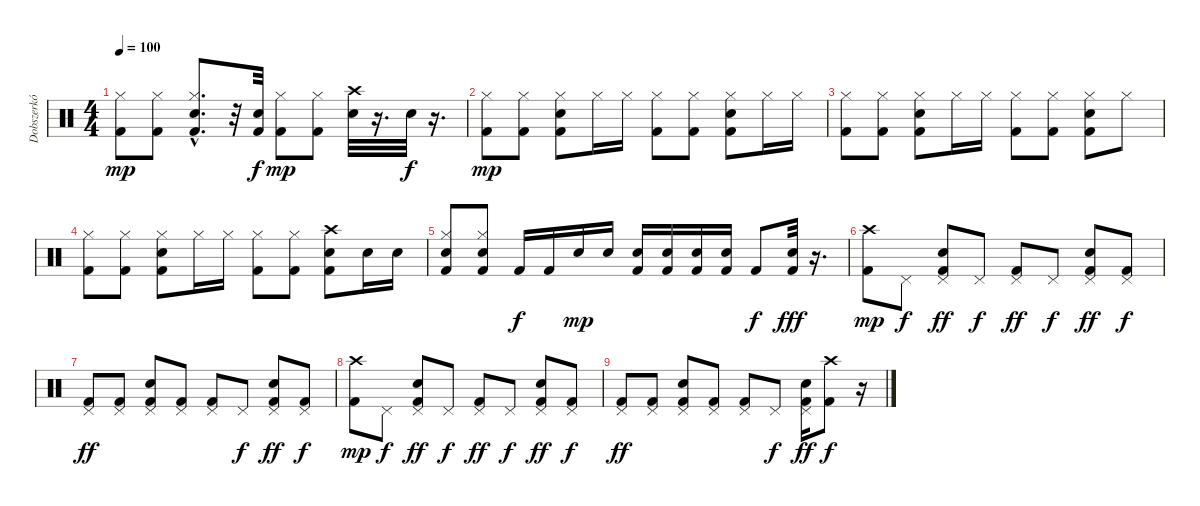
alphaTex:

\track ("Dobszerkó" "Dobszerkó") {instrument percussion}
\staff {score}
\articulation defaults
\ts (4 4)
\tempo 100
\clef neutral
\ks c
("Kick (hit) 2" "Hi-Hat (closed)").8{dy mp} ("Kick (hit) 2" "Hi-Hat (closed)").8 ("Electric Snare (hit)"{hac} "Kick (hit) 2"{hac} "Hi-Hat (closed)"{hac}).8{d} r.32 ("Electric Snare (hit)" "Kick (hit) 2").32{dy f} ("Kick (hit) 2" "Hi-Hat (closed)").8{dy mp} ("Kick (hit) 2" "Hi-Hat (closed)").8 ("Electric Snare (hit)"{tr (40 64)} "Crash high (hit)").32 r.16{d} "Snare (hit) 2"{tr (38 64)}.32{dy f} r.16{d} |
("Kick (hit) 2" "Hi-Hat (closed)").8{dy mp} ("Kick (hit) 2" "Hi-Hat (closed)").8 ("Electric Snare (hit)" "Kick (hit) 2" "Hi-Hat (closed)").8 "Hi-Hat (closed)".16 "Hi-Hat (closed)".16 ("Kick (hit) 2" "Hi-Hat (closed)").8 ("Kick (hit) 2" "Hi-Hat (closed)").8 ("Electric Snare (hit)" "Kick (hit) 2" "Hi-Hat (closed)").8 "Hi-Hat (closed)".16 "Hi-Hat (closed)".16 |
("Kick (hit) 2" "Hi-Hat (closed)").8 ("Kick (hit) 2" "Hi-Hat (closed)").8 ("Electric Snare (hit)" "Kick (hit) 2" "Hi-Hat (closed)").8 "Hi-Hat (closed)".16 "Hi-Hat (closed)".16 ("Kick (hit) 2" "Hi-Hat (closed)").8 ("Kick (hit) 2" "Hi-Hat (closed)").8 ("Electric Snare (hit)" "Kick (hit) 2" "Hi-Hat (closed)").8 "Hi-Hat (closed)".8 |
("Kick (hit) 2" "Hi-Hat (closed)").8 ("Kick (hit) 2" "Hi-Hat (closed)").8 ("Electric Snare (hit)" "Kick (hit) 2" "Hi-Hat (closed)").8 "Hi-Hat (closed)".16 "Hi-Hat (closed)".16 ("Kick (hit) 2" "Hi-Hat (closed)").8 ("Kick (hit) 2" "Hi-Hat (closed)").8 ("Electric Snare (hit)" "Kick (hit) 2" "Crash high (hit)").8 "Electric Snare (hit)".16 "Electric Snare (hit)".16 |
("Electric Snare (hit)" "Kick (hit) 2" "Hi-Hat (closed)").8 ("Electric Snare (hit)" "Kick (hit) 2" "Hi-Hat (closed)").8 "Kick (hit) 2".16{dy f} "Kick (hit) 2".16 "Electric Snare (hit)".16{dy mp} "Electric Snare (hit)".16 ("Electric Snare (hit)" "Kick (hit) 2").16 ("Electric Snare (hit)" "Kick (hit) 2").16 ("Snare (hit) 2" "Kick (hit) 2").16 ("Snare (hit) 2" "Kick (hit) 2").16 "Kick (hit) 2".8{dy f} ("Electric Snare (hit)"{tr (40 64)} "Kick (hit) 2").32{dy fff} r.16{d} |
("Kick (hit) 2" "Crash high (hit)").8{dy mp} "Pedal Hi-Hat (hit)".8{dy f} ("Electric Snare (hit)" "Kick (hit) 2" "Pedal Hi-Hat (hit)").8{dy ff} "Pedal Hi-Hat (hit)".8{dy f} ("Kick (hit) 2" "Pedal Hi-Hat (hit)").8{dy ff} "Pedal Hi-Hat (hit)".8{dy f} ("Electric Snare (hit)" "Kick (hit) 2" "Pedal Hi-Hat (hit)").8{dy ff} ("Kick (hit) 2" "Pedal Hi-Hat (hit)").8{dy f} |
("Kick (hit) 2" "Pedal Hi-Hat (hit)").8{dy ff} ("Kick (hit) 2" "Pedal Hi-Hat (hit)").8 ("Electric Snare (hit)" "Kick (hit) 2" "Pedal Hi-Hat (hit)").8 ("Kick (hit) 2" "Pedal Hi-Hat (hit)").8 ("Kick (hit) 2" "Pedal Hi-Hat (hit)").8 "Pedal Hi-Hat (hit)".8{dy f} ("Electric Snare (hit)" "Kick (hit) 2" "Pedal Hi-Hat (hit)").8{dy ff} ("Kick (hit) 2" "Pedal Hi-Hat (hit)").8{dy f} |
("Kick (hit) 2" "Crash high (hit)").8{dy mp} "Pedal Hi-Hat (hit)".8{dy f} ("Electric Snare (hit)" "Kick (hit) 2" "Pedal Hi-Hat (hit)").8{dy ff} "Pedal Hi-Hat (hit)".8{dy f} ("Kick (hit) 2" "Pedal Hi-Hat (hit)").8{dy ff} "Pedal Hi-Hat (hit)".8{dy f} ("Electric Snare (hit)" "Kick (hit) 2" "Pedal Hi-Hat (hit)").8{dy ff} ("Kick (hit) 2" "Pedal Hi-Hat (hit)").8{dy f} |
("Kick (hit) 2" "Pedal Hi-Hat (hit)").8{dy ff} ("Kick (hit) 2" "Pedal Hi-Hat (hit)").8 ("Electric Snare (hit)" "Kick (hit) 2" "Pedal Hi-Hat (hit)").8 ("Kick (hit) 2" "Pedal Hi-Hat (hit)").8 ("Kick (hit) 2" "Pedal Hi-Hat (hit)").8 "Pedal Hi-Hat (hit)".8{dy f} ("Electric Snare (hit)" "Kick (hit) 2" "Pedal Hi-Hat (hit)").16{dy ff} ("Kick (hit) 2" "Crash high (hit)").8{dy f} r.16
